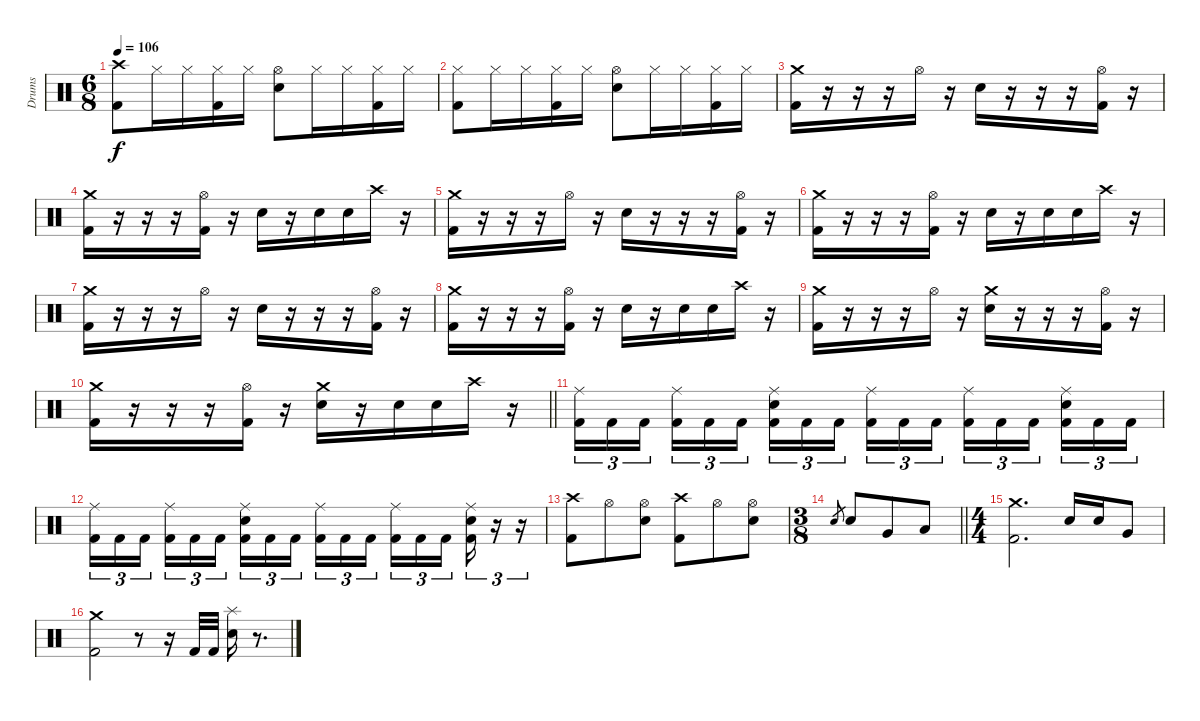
\track ("Drums" "Drums") {instrument percussion}
\staff {score}
\articulation defaults
\ts (6 8)
\tempo 106
\clef neutral
\ks aminor
("Crash high (hit)" "Kick (hit) 2").8{dy f} "Hi-Hat (closed)".16 "Hi-Hat (closed)".16 ("Hi-Hat (closed)" "Kick (hit) 2").16 "Hi-Hat (closed)".16 ("Hi-Hat (open)" "Electric Snare (hit)").8 "Hi-Hat (closed)".16 "Hi-Hat (closed)".16 ("Hi-Hat (closed)" "Kick (hit) 2").16 "Hi-Hat (closed)".16 |
("Hi-Hat (closed)" "Kick (hit) 2").8 "Hi-Hat (closed)".16 "Hi-Hat (closed)".16 ("Hi-Hat (closed)" "Kick (hit) 2").16 "Hi-Hat (closed)".16 ("Hi-Hat (open)" "Electric Snare (hit)").8 "Hi-Hat (closed)".16 "Hi-Hat (closed)".16 ("Hi-Hat (closed)" "Kick (hit) 2").16 "Hi-Hat (closed)".16 |
\section ("" "")
("Crash medium (hit)" "Kick (hit) 2").16 r.16 r.16 r.16 "Hi-Hat (open)".16 r.16 "Electric Snare (hit)".16 r.16 r.16 r.16 ("Hi-Hat (open)" "Kick (hit) 2").16 r.16 |
("Crash medium (hit)" "Kick (hit) 2").16 r.16 r.16 r.16 ("Hi-Hat (open)" "Kick (hit) 2").16 r.16 "Electric Snare (hit)".16 r.16 "Electric Snare (hit)".16 "Electric Snare (hit)".16 "Crash high (hit)".16 r.16 |
("Crash medium (hit)" "Kick (hit) 2").16 r.16 r.16 r.16 "Hi-Hat (open)".16 r.16 "Electric Snare (hit)".16 r.16 r.16 r.16 ("Hi-Hat (open)" "Kick (hit) 2").16 r.16 |
("Crash medium (hit)" "Kick (hit) 2").16 r.16 r.16 r.16 ("Hi-Hat (open)" "Kick (hit) 2").16 r.16 "Electric Snare (hit)".16 r.16 "Electric Snare (hit)".16 "Electric Snare (hit)".16 "Crash high (hit)".16 r.16 |
\section ("" "")
("Crash medium (hit)" "Kick (hit) 2").16 r.16 r.16 r.16 "Hi-Hat (open)".16 r.16 "Electric Snare (hit)".16 r.16 r.16 r.16 ("Hi-Hat (open)" "Kick (hit) 2").16 r.16 |
("Crash medium (hit)" "Kick (hit) 2").16 r.16 r.16 r.16 ("Hi-Hat (open)" "Kick (hit) 2").16 r.16 "Electric Snare (hit)".16 r.16 "Electric Snare (hit)".16 "Electric Snare (hit)".16 "Crash high (hit)".16 r.16 |
("Crash medium (hit)" "Kick (hit) 2").16 r.16 r.16 r.16 "Hi-Hat (open)".16 r.16 ("Crash medium (hit)" "Electric Snare (hit)").16 r.16 r.16 r.16 ("Hi-Hat (open)" "Kick (hit) 2").16 r.16 |
\barLineRight lightlight
("Crash medium (hit)" "Kick (hit) 2").16 r.16 r.16 r.16 ("Hi-Hat (open)" "Kick (hit) 2").16 r.16 ("Crash medium (hit)" "Electric Snare (hit)").16 r.16 "Electric Snare (hit)".16 "Electric Snare (hit)".16 "Crash high (hit)".16 r.16 |
\section ("" "")
("Ride (middle)" "Kick (hit) 2").16{tu (3 2)} "Kick (hit) 2".16{tu (3 2)} "Kick (hit) 2".16{tu (3 2)} ("Ride (middle)" "Kick (hit) 2").16{tu (3 2)} "Kick (hit) 2".16{tu (3 2)} "Kick (hit) 2".16{tu (3 2)} ("Ride (middle)" "Electric Snare (hit)" "Kick (hit) 2").16{tu (3 2)} "Kick (hit) 2".16{tu (3 2)} "Kick (hit) 2".16{tu (3 2)} ("Ride (middle)" "Kick (hit) 2").16{tu (3 2)} "Kick (hit) 2".16{tu (3 2)} "Kick (hit) 2".16{tu (3 2)} ("Ride (middle)" "Kick (hit) 2").16{tu (3 2)} "Kick (hit) 2".16{tu (3 2)} "Kick (hit) 2".16{tu (3 2)} ("Ride (middle)" "Electric Snare (hit)" "Kick (hit) 2").16{tu (3 2)} "Kick (hit) 2".16{tu (3 2)} "Kick (hit) 2".16{tu (3 2)} |
("Ride (middle)" "Kick (hit) 2").16{tu (3 2)} "Kick (hit) 2".16{tu (3 2)} "Kick (hit) 2".16{tu (3 2)} ("Ride (middle)" "Kick (hit) 2").16{tu (3 2)} "Kick (hit) 2".16{tu (3 2)} "Kick (hit) 2".16{tu (3 2)} ("Ride (middle)" "Electric Snare (hit)" "Kick (hit) 2").16{tu (3 2)} "Kick (hit) 2".16{tu (3 2)} "Kick (hit) 2".16{tu (3 2)} ("Ride (middle)" "Kick (hit) 2").16{tu (3 2)} "Kick (hit) 2".16{tu (3 2)} "Kick (hit) 2".16{tu (3 2)} ("Ride (middle)" "Kick (hit) 2").16{tu (3 2)} "Kick (hit) 2".16{tu (3 2)} "Kick (hit) 2".16{tu (3 2)} ("Ride (middle)" "Electric Snare (hit)" "Kick (hit) 2").16{tu (3 2)} r.16{tu (3 2)} r.16{tu (3 2)} |
("Crash high (hit)" "Kick (hit) 2").8 "Hi-Hat (open)".8 ("Hi-Hat (open)" "Electric Snare (hit)").8 ("Crash high (hit)" "Kick (hit) 2").8 "Hi-Hat (open)".8 ("Hi-Hat (open)" "Electric Snare (hit)").8 |
\ts (3 8)
\barLineRight lightlight "Electric Snare (hit)".8{gr} "Electric Snare (hit)".8 "Very Low Tom (hit)".8 "Low Floor Tom (hit)".8
|
\ts (4 4)
\section ("" "")
\ks c
("Crash medium (hit)" "Kick (hit) 2").2{d} "Electric Snare (hit)".16 "Electric Snare (hit)".16 "Very Low Tom (hit)".8 |
("Crash medium (hit)" "Kick (hit) 2").2 r.8 r.16 "Kick (hit) 2".32 "Kick (hit) 2".32 ("Splash (hit)" "Electric Snare (hit)").16 r.8{d}
